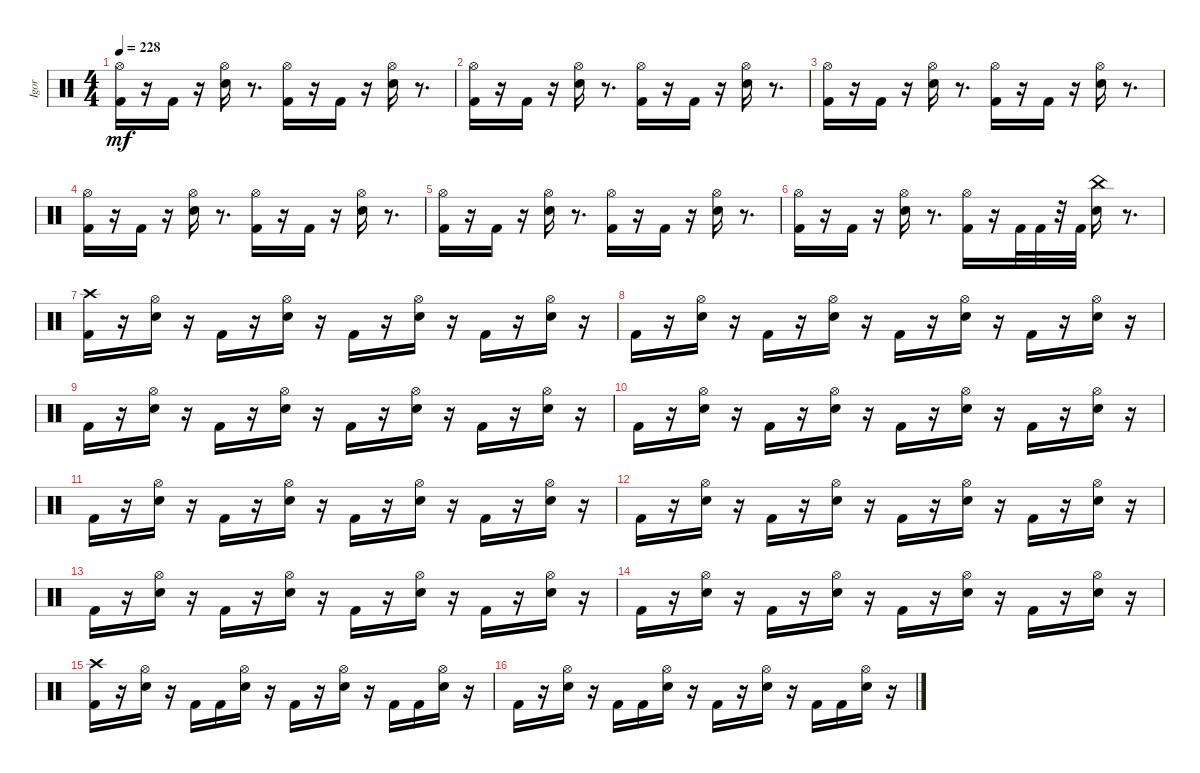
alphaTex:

\track ("Igor" "Igor") {instrument percussion}
\staff {score}
\articulation defaults
\ts (4 4)
\tempo 228
\clef neutral
\ks c
("Kick (hit) 2" "Hi-Hat (open)").16{dy mf} r.16 "Kick (hit) 2".16 r.16 ("Snare (hit) 2" "Hi-Hat (open)").16 r.8{d} ("Kick (hit) 2" "Hi-Hat (open)").16 r.16 "Kick (hit) 2".16 r.16 ("Snare (hit) 2" "Hi-Hat (open)").16 r.8{d} |
("Kick (hit) 2" "Hi-Hat (open)").16 r.16 "Kick (hit) 2".16 r.16 ("Snare (hit) 2" "Hi-Hat (open)").16 r.8{d} ("Kick (hit) 2" "Hi-Hat (open)").16 r.16 "Kick (hit) 2".16 r.16 ("Snare (hit) 2" "Hi-Hat (open)").16 r.8{d} |
("Kick (hit) 2" "Hi-Hat (open)").16 r.16 "Kick (hit) 2".16 r.16 ("Snare (hit) 2" "Hi-Hat (open)").16 r.8{d} ("Kick (hit) 2" "Hi-Hat (open)").16 r.16 "Kick (hit) 2".16 r.16 ("Snare (hit) 2" "Hi-Hat (open)").16 r.8{d} |
("Kick (hit) 2" "Hi-Hat (open)").16 r.16 "Kick (hit) 2".16 r.16 ("Snare (hit) 2" "Hi-Hat (open)").16 r.8{d} ("Kick (hit) 2" "Hi-Hat (open)").16 r.16 "Kick (hit) 2".16 r.16 ("Snare (hit) 2" "Hi-Hat (open)").16 r.8{d} |
("Kick (hit) 2" "Hi-Hat (open)").16 r.16 "Kick (hit) 2".16 r.16 ("Snare (hit) 2" "Hi-Hat (open)").16 r.8{d} ("Kick (hit) 2" "Hi-Hat (open)").16 r.16 "Kick (hit) 2".16 r.16 ("Snare (hit) 2" "Hi-Hat (open)").16 r.8{d} |
("Kick (hit) 2" "Hi-Hat (open)").16 r.16 "Kick (hit) 2".16 r.16 ("Snare (hit) 2" "Hi-Hat (open)").16 r.8{d} ("Kick (hit) 2" "Hi-Hat (open)").16 r.16 "Kick (hit) 2".32 "Kick (hit) 2".32 r.32 "Kick (hit) 2".32 ("Snare (hit) 2" "China (hit)").16 r.8{d} |
("Kick (hit) 2" "Crash high (hit)").16 r.16 ("Snare (hit) 2" "Hi-Hat (open)").16 r.16 "Kick (hit) 2".16 r.16 ("Snare (hit) 2" "Hi-Hat (open)").16 r.16 "Kick (hit) 2".16 r.16 ("Snare (hit) 2" "Hi-Hat (open)").16 r.16 "Kick (hit) 2".16 r.16 ("Snare (hit) 2" "Hi-Hat (open)").16 r.16 |
"Kick (hit) 2".16 r.16 ("Snare (hit) 2" "Hi-Hat (open)").16 r.16 "Kick (hit) 2".16 r.16 ("Snare (hit) 2" "Hi-Hat (open)").16 r.16 "Kick (hit) 2".16 r.16 ("Snare (hit) 2" "Hi-Hat (open)").16 r.16 "Kick (hit) 2".16 r.16 ("Snare (hit) 2" "Hi-Hat (open)").16 r.16 |
"Kick (hit) 2".16 r.16 ("Snare (hit) 2" "Hi-Hat (open)").16 r.16 "Kick (hit) 2".16 r.16 ("Snare (hit) 2" "Hi-Hat (open)").16 r.16 "Kick (hit) 2".16 r.16 ("Snare (hit) 2" "Hi-Hat (open)").16 r.16 "Kick (hit) 2".16 r.16 ("Snare (hit) 2" "Hi-Hat (open)").16 r.16 |
"Kick (hit) 2".16 r.16 ("Snare (hit) 2" "Hi-Hat (open)").16 r.16 "Kick (hit) 2".16 r.16 ("Snare (hit) 2" "Hi-Hat (open)").16 r.16 "Kick (hit) 2".16 r.16 ("Snare (hit) 2" "Hi-Hat (open)").16 r.16 "Kick (hit) 2".16 r.16 ("Snare (hit) 2" "Hi-Hat (open)").16 r.16 |
"Kick (hit) 2".16 r.16 ("Snare (hit) 2" "Hi-Hat (open)").16 r.16 "Kick (hit) 2".16 r.16 ("Snare (hit) 2" "Hi-Hat (open)").16 r.16 "Kick (hit) 2".16 r.16 ("Snare (hit) 2" "Hi-Hat (open)").16 r.16 "Kick (hit) 2".16 r.16 ("Snare (hit) 2" "Hi-Hat (open)").16 r.16 |
"Kick (hit) 2".16 r.16 ("Snare (hit) 2" "Hi-Hat (open)").16 r.16 "Kick (hit) 2".16 r.16 ("Snare (hit) 2" "Hi-Hat (open)").16 r.16 "Kick (hit) 2".16 r.16 ("Snare (hit) 2" "Hi-Hat (open)").16 r.16 "Kick (hit) 2".16 r.16 ("Snare (hit) 2" "Hi-Hat (open)").16 r.16 |
"Kick (hit) 2".16 r.16 ("Snare (hit) 2" "Hi-Hat (open)").16 r.16 "Kick (hit) 2".16 r.16 ("Snare (hit) 2" "Hi-Hat (open)").16 r.16 "Kick (hit) 2".16 r.16 ("Snare (hit) 2" "Hi-Hat (open)").16 r.16 "Kick (hit) 2".16 r.16 ("Snare (hit) 2" "Hi-Hat (open)").16 r.16 |
"Kick (hit) 2".16 r.16 ("Snare (hit) 2" "Hi-Hat (open)").16 r.16 "Kick (hit) 2".16 r.16 ("Snare (hit) 2" "Hi-Hat (open)").16 r.16 "Kick (hit) 2".16 r.16 ("Snare (hit) 2" "Hi-Hat (open)").16 r.16 "Kick (hit) 2".16 r.16 ("Snare (hit) 2" "Hi-Hat (open)").16 r.16 |
("Kick (hit) 2" "Crash high (hit)").16 r.16 ("Snare (hit) 2" "Hi-Hat (open)").16 r.16 "Kick (hit) 2".16 "Kick (hit) 2".16 ("Snare (hit) 2" "Hi-Hat (open)").16 r.16 "Kick (hit) 2".16 r.16 ("Snare (hit) 2" "Hi-Hat (open)").16 r.16 "Kick (hit) 2".16 "Kick (hit) 2".16 ("Snare (hit) 2" "Hi-Hat (open)").16 r.16 |
"Kick (hit) 2".16 r.16 ("Snare (hit) 2" "Hi-Hat (open)").16 r.16 "Kick (hit) 2".16 "Kick (hit) 2".16 ("Snare (hit) 2" "Hi-Hat (open)").16 r.16 "Kick (hit) 2".16 r.16 ("Snare (hit) 2" "Hi-Hat (open)").16 r.16 "Kick (hit) 2".16 "Kick (hit) 2".16 ("Snare (hit) 2" "Hi-Hat (open)").16 r.16
